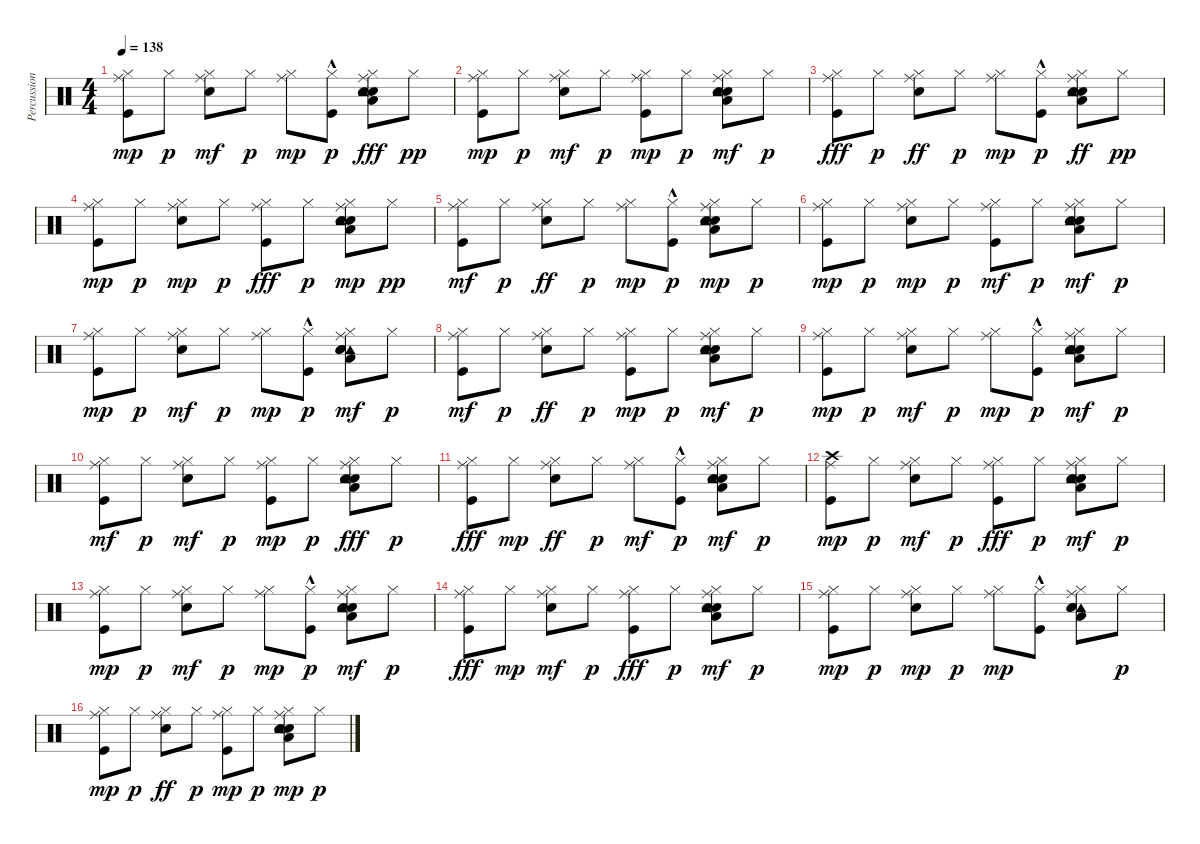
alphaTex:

\track ("Percussion" "Percussion") {instrument percussion}
\staff {score}
\articulation defaults
\ts (4 4)
\tempo 138
\clef neutral
\ks c
("Kick (hit)" "Hi-Hat (closed)" "Ride (middle)").8{dy mp} "Hi-Hat (closed)".8{dy p} ("Electric Snare (hit)" "Hi-Hat (closed)" "Ride (middle)").8{dy mf} "Hi-Hat (closed)".8{dy p} ("Hi-Hat (closed)" "Ride (middle)").8{dy mp} ("Kick (hit)"{hac} "Hi-Hat (closed)").8{dy p} ("Hi-Hat (closed)" "Ride (middle)" "Hand Clap (hit)" "Low Floor Tom (hit)" "Snare (hit) 2" "Tambourine (hit)").8{dy fff} "Hi-Hat (closed)".8{dy pp} |
("Kick (hit)" "Hi-Hat (closed)" "Ride (middle)").8{dy mp} "Hi-Hat (closed)".8{dy p} ("Electric Snare (hit)" "Hi-Hat (closed)" "Ride (middle)").8{dy mf} "Hi-Hat (closed)".8{dy p} ("Kick (hit)" "Hi-Hat (closed)" "Ride (middle)").8{dy mp} "Hi-Hat (closed)".8{dy p} ("Hand Clap (hit)" "Snare (hit) 2" "Low Floor Tom (hit)" "Tambourine (hit)" "Hi-Hat (closed)" "Ride (middle)").8{dy mf} "Hi-Hat (closed)".8{dy p} |
("Hi-Hat (closed)" "Ride (middle)" "Kick (hit)").8{dy fff} "Hi-Hat (closed)".8{dy p} ("Hi-Hat (closed)" "Ride (middle)" "Electric Snare (hit)").8{dy ff} "Hi-Hat (closed)".8{dy p} ("Hi-Hat (closed)" "Ride (middle)").8{dy mp} ("Kick (hit)"{hac} "Hi-Hat (closed)").8{dy p} ("Hi-Hat (closed)" "Ride (middle)" "Snare (hit) 2" "Hand Clap (hit)" "Tambourine (hit)" "Low Floor Tom (hit)").8{dy ff} "Hi-Hat (closed)".8{dy pp} |
("Kick (hit)" "Hi-Hat (closed)" "Ride (middle)").8{dy mp} "Hi-Hat (closed)".8{dy p} ("Electric Snare (hit)" "Ride (middle)" "Hi-Hat (closed)").8{dy mp} "Hi-Hat (closed)".8{dy p} ("Hi-Hat (closed)" "Ride (middle)" "Kick (hit)").8{dy fff} "Hi-Hat (closed)".8{dy p} ("Snare (hit) 2" "Hand Clap (hit)" "Low Floor Tom (hit)" "Tambourine (hit)" "Hi-Hat (closed)" "Ride (middle)").8{dy mp} "Hi-Hat (closed)".8{dy pp} |
("Ride (middle)" "Kick (hit)" "Hi-Hat (closed)").8{dy mf} "Hi-Hat (closed)".8{dy p} ("Hi-Hat (closed)" "Ride (middle)" "Electric Snare (hit)").8{dy ff} "Hi-Hat (closed)".8{dy p} ("Hi-Hat (closed)" "Ride (middle)").8{dy mp} ("Kick (hit)"{hac} "Hi-Hat (closed)").8{dy p} ("Snare (hit) 2" "Hand Clap (hit)" "Tambourine (hit)" "Low Floor Tom (hit)" "Hi-Hat (closed)" "Ride (middle)").8{dy mp} "Hi-Hat (closed)".8{dy p} |
("Hi-Hat (closed)" "Kick (hit)" "Ride (middle)").8{dy mp} "Hi-Hat (closed)".8{dy p} ("Electric Snare (hit)" "Hi-Hat (closed)" "Ride (middle)").8{dy mp} "Hi-Hat (closed)".8{dy p} ("Hi-Hat (closed)" "Kick (hit)" "Ride (middle)").8{dy mf} "Hi-Hat (closed)".8{dy p} ("Hand Clap (hit)" "Snare (hit) 2" "Low Floor Tom (hit)" "Tambourine (hit)" "Hi-Hat (closed)" "Ride (middle)").8{dy mf} "Hi-Hat (closed)".8{dy p} |
("Kick (hit)" "Hi-Hat (closed)" "Ride (middle)").8{dy mp} "Hi-Hat (closed)".8{dy p} ("Electric Snare (hit)" "Hi-Hat (closed)" "Ride (middle)").8{dy mf} "Hi-Hat (closed)".8{dy p} ("Hi-Hat (closed)" "Ride (middle)").8{dy mp} ("Kick (hit)"{hac} "Hi-Hat (closed)").8{dy p} ("Tambourine (hit)" "Hand Clap (hit)" "Low Floor Tom (hit)" "Snare (hit) 2" "Hi-Hat (closed)" "Ride (middle)").8{dy mf} "Hi-Hat (closed)".8{dy p} |
("Hi-Hat (closed)" "Kick (hit)" "Ride (middle)").8{dy mf} "Hi-Hat (closed)".8{dy p} ("Hi-Hat (closed)" "Ride (middle)" "Electric Snare (hit)").8{dy ff} "Hi-Hat (closed)".8{dy p} ("Kick (hit)" "Hi-Hat (closed)" "Ride (middle)").8{dy mp} "Hi-Hat (closed)".8{dy p} ("Snare (hit) 2" "Tambourine (hit)" "Low Floor Tom (hit)" "Hand Clap (hit)" "Hi-Hat (closed)" "Ride (middle)").8{dy mf} "Hi-Hat (closed)".8{dy p} |
("Kick (hit)" "Hi-Hat (closed)" "Ride (middle)").8{dy mp} "Hi-Hat (closed)".8{dy p} ("Electric Snare (hit)" "Hi-Hat (closed)" "Ride (middle)").8{dy mf} "Hi-Hat (closed)".8{dy p} ("Hi-Hat (closed)" "Ride (middle)").8{dy mp} ("Kick (hit)"{hac} "Hi-Hat (closed)").8{dy p} ("Hi-Hat (closed)" "Hand Clap (hit)" "Low Floor Tom (hit)" "Snare (hit) 2" "Tambourine (hit)" "Ride (middle)").8{dy mf} "Hi-Hat (closed)".8{dy p} |
("Hi-Hat (closed)" "Kick (hit)" "Ride (middle)").8{dy mf} "Hi-Hat (closed)".8{dy p} ("Electric Snare (hit)" "Hi-Hat (closed)" "Ride (middle)").8{dy mf} "Hi-Hat (closed)".8{dy p} ("Kick (hit)" "Ride (middle)" "Hi-Hat (closed)").8{dy mp} "Hi-Hat (closed)".8{dy p} ("Ride (middle)" "Hand Clap (hit)" "Snare (hit) 2" "Low Floor Tom (hit)" "Tambourine (hit)" "Hi-Hat (closed)").8{dy fff} "Hi-Hat (closed)".8{dy p} |
("Ride (middle)" "Kick (hit)" "Hi-Hat (closed)").8{dy fff} "Hi-Hat (closed)".8{dy mp} ("Ride (middle)" "Electric Snare (hit)" "Hi-Hat (closed)").8{dy ff} "Hi-Hat (closed)".8{dy p} ("Ride (middle)" "Hi-Hat (closed)").8{dy mf} ("Kick (hit)"{hac} "Hi-Hat (closed)").8{dy p} ("Snare (hit) 2" "Hand Clap (hit)" "Tambourine (hit)" "Low Floor Tom (hit)" "Hi-Hat (closed)" "Ride (middle)").8{dy mf} "Hi-Hat (closed)".8{dy p} |
("Kick (hit)" "Crash high (hit)" "Ride (middle)").8{dy mp} "Hi-Hat (closed)".8{dy p} ("Electric Snare (hit)" "Hi-Hat (closed)" "Ride (middle)").8{dy mf} "Hi-Hat (closed)".8{dy p} ("Hi-Hat (closed)" "Ride (middle)" "Kick (hit)").8{dy fff} "Hi-Hat (closed)".8{dy p} ("Snare (hit) 2" "Hand Clap (hit)" "Low Floor Tom (hit)" "Tambourine (hit)" "Hi-Hat (closed)" "Ride (middle)").8{dy mf} "Hi-Hat (closed)".8{dy p} |
("Kick (hit)" "Hi-Hat (closed)" "Ride (middle)").8{dy mp} "Hi-Hat (closed)".8{dy p} ("Hi-Hat (closed)" "Electric Snare (hit)" "Ride (middle)").8{dy mf} "Hi-Hat (closed)".8{dy p} ("Hi-Hat (closed)" "Ride (middle)").8{dy mp} ("Kick (hit)"{hac} "Hi-Hat (closed)").8{dy p} ("Snare (hit) 2" "Hand Clap (hit)" "Tambourine (hit)" "Low Floor Tom (hit)" "Hi-Hat (closed)" "Ride (middle)").8{dy mf} "Hi-Hat (closed)".8{dy p} |
("Hi-Hat (closed)" "Ride (middle)" "Kick (hit)").8{dy fff} "Hi-Hat (closed)".8{dy mp} ("Electric Snare (hit)" "Hi-Hat (closed)" "Ride (middle)").8{dy mf} "Hi-Hat (closed)".8{dy p} ("Hi-Hat (closed)" "Ride (middle)" "Kick (hit)").8{dy fff} "Hi-Hat (closed)".8{dy p} ("Hand Clap (hit)" "Snare (hit) 2" "Low Floor Tom (hit)" "Tambourine (hit)" "Ride (middle)" "Hi-Hat (closed)").8{dy mf} "Hi-Hat (closed)".8{dy p} |
("Kick (hit)" "Hi-Hat (closed)" "Ride (middle)").8{dy mp} "Hi-Hat (closed)".8{dy p} ("Electric Snare (hit)" "Hi-Hat (closed)" "Ride (middle)").8{dy mp} "Hi-Hat (closed)".8{dy p} ("Hi-Hat (closed)" "Ride (middle)").8{dy mp} ("Kick (hit)"{hac} "Hi-Hat (closed)").8 ("Hi-Hat (closed)" "Tambourine (hit)" "Hand Clap (hit)" "Low Floor Tom (hit)" "Snare (hit) 2" "Ride (middle)").8 "Hi-Hat (closed)".8{dy p} |
("Ride (middle)" "Kick (hit)" "Hi-Hat (closed)").8{dy mp} "Hi-Hat (closed)".8{dy p} ("Hi-Hat (closed)" "Ride (middle)" "Electric Snare (hit)").8{dy ff} "Hi-Hat (closed)".8{dy p} ("Kick (hit)" "Hi-Hat (closed)" "Ride (middle)").8{dy mp} "Hi-Hat (closed)".8{dy p} ("Snare (hit) 2" "Tambourine (hit)" "Low Floor Tom (hit)" "Hand Clap (hit)" "Hi-Hat (closed)" "Ride (middle)").8{dy mp} "Hi-Hat (closed)".8{dy p}
